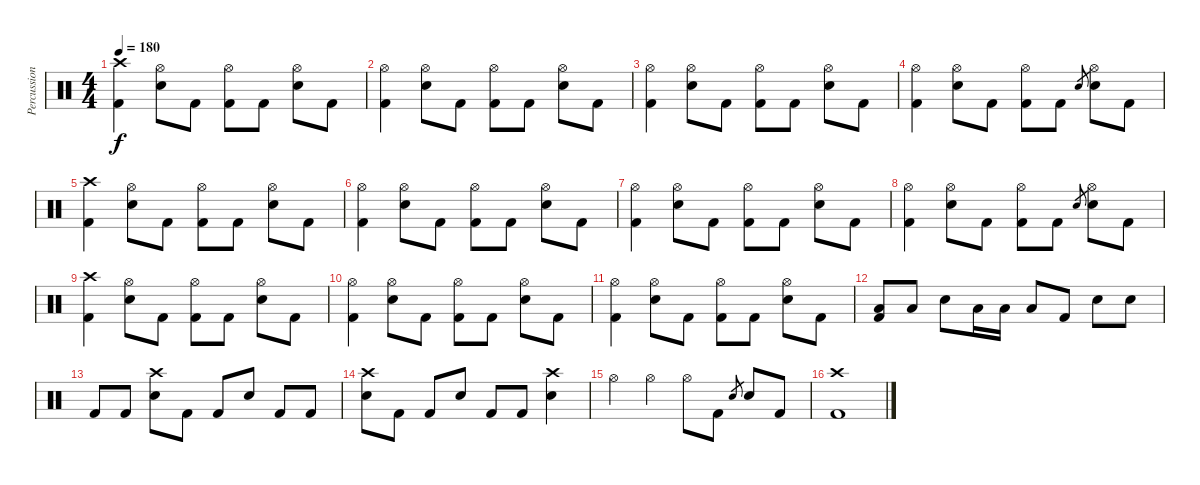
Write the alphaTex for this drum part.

\track ("Percussion" "Percussion") {instrument percussion}
\staff {score}
\articulation defaults
\ts (4 4)
\tempo 180
\clef neutral
\ks c
("Crash high (hit)" "Kick (hit) 2").4{dy f} ("Hi-Hat (open)" "Electric Snare (hit)").8 "Kick (hit) 2".8 ("Hi-Hat (open)" "Kick (hit) 2").8 "Kick (hit) 2".8 ("Hi-Hat (open)" "Electric Snare (hit)").8 "Kick (hit) 2".8 |
("Hi-Hat (open)" "Kick (hit) 2").4 ("Hi-Hat (open)" "Electric Snare (hit)").8 "Kick (hit) 2".8 ("Hi-Hat (open)" "Kick (hit) 2").8 "Kick (hit) 2".8 ("Hi-Hat (open)" "Electric Snare (hit)").8 "Kick (hit) 2".8 |
("Hi-Hat (open)" "Kick (hit) 2").4 ("Hi-Hat (open)" "Electric Snare (hit)").8 "Kick (hit) 2".8 ("Hi-Hat (open)" "Kick (hit) 2").8 "Kick (hit) 2".8 ("Hi-Hat (open)" "Electric Snare (hit)").8 "Kick (hit) 2".8 |
("Hi-Hat (open)" "Kick (hit) 2").4 ("Hi-Hat (open)" "Electric Snare (hit)").8 "Kick (hit) 2".8 ("Hi-Hat (open)" "Kick (hit) 2").8 "Kick (hit) 2".8 "Electric Snare (hit)".8{gr} ("Hi-Hat (open)" "Electric Snare (hit)").8 "Kick (hit) 2".8 |
("Crash high (hit)" "Kick (hit) 2").4 ("Hi-Hat (open)" "Electric Snare (hit)").8 "Kick (hit) 2".8 ("Hi-Hat (open)" "Kick (hit) 2").8 "Kick (hit) 2".8 ("Hi-Hat (open)" "Electric Snare (hit)").8 "Kick (hit) 2".8 |
("Hi-Hat (open)" "Kick (hit) 2").4 ("Hi-Hat (open)" "Electric Snare (hit)").8 "Kick (hit) 2".8 ("Hi-Hat (open)" "Kick (hit) 2").8 "Kick (hit) 2".8 ("Hi-Hat (open)" "Electric Snare (hit)").8 "Kick (hit) 2".8 |
("Hi-Hat (open)" "Kick (hit) 2").4 ("Hi-Hat (open)" "Electric Snare (hit)").8 "Kick (hit) 2".8 ("Hi-Hat (open)" "Kick (hit) 2").8 "Kick (hit) 2".8 ("Hi-Hat (open)" "Electric Snare (hit)").8 "Kick (hit) 2".8 |
("Hi-Hat (open)" "Kick (hit) 2").4 ("Hi-Hat (open)" "Electric Snare (hit)").8 "Kick (hit) 2".8 ("Hi-Hat (open)" "Kick (hit) 2").8 "Kick (hit) 2".8 "Electric Snare (hit)".8{gr} ("Hi-Hat (open)" "Electric Snare (hit)").8 "Kick (hit) 2".8 |
("Crash high (hit)" "Kick (hit) 2").4 ("Hi-Hat (open)" "Electric Snare (hit)").8 "Kick (hit) 2".8 ("Hi-Hat (open)" "Kick (hit) 2").8 "Kick (hit) 2".8 ("Hi-Hat (open)" "Electric Snare (hit)").8 "Kick (hit) 2".8 |
("Hi-Hat (open)" "Kick (hit) 2").4 ("Hi-Hat (open)" "Electric Snare (hit)").8 "Kick (hit) 2".8 ("Hi-Hat (open)" "Kick (hit) 2").8 "Kick (hit) 2".8 ("Hi-Hat (open)" "Electric Snare (hit)").8 "Kick (hit) 2".8 |
("Hi-Hat (open)" "Kick (hit) 2").4 ("Hi-Hat (open)" "Electric Snare (hit)").8 "Kick (hit) 2".8 ("Hi-Hat (open)" "Kick (hit) 2").8 "Kick (hit) 2".8 ("Hi-Hat (open)" "Electric Snare (hit)").8 "Kick (hit) 2".8 |
("Low Tom (hit)" "Kick (hit) 2").8 "Low Tom (hit)".8 "Electric Snare (hit)".8 "Low Tom (hit)".16 "Low Tom (hit)".16 "Low Tom (hit)".8 "Kick (hit) 2".8 "Electric Snare (hit)".8 "Electric Snare (hit)".8 |
"Kick (hit) 2".8 "Kick (hit) 2".8 ("Crash high (hit)" "Electric Snare (hit)").8 "Kick (hit) 2".8 "Kick (hit) 2".8 "Electric Snare (hit)".8 "Kick (hit) 2".8 "Kick (hit) 2".8 |
("Crash high (hit)" "Electric Snare (hit)").8 "Kick (hit) 2".8 "Kick (hit) 2".8 "Electric Snare (hit)".8 "Kick (hit) 2".8 "Kick (hit) 2".8 ("Crash high (hit)" "Electric Snare (hit)").4 |
"Hi-Hat (open)".4 "Hi-Hat (open)".4 "Hi-Hat (open)".8 "Kick (hit) 2".8 "Electric Snare (hit)".8{gr} "Electric Snare (hit)".8 "Kick (hit) 2".8 |
("Crash high (hit)" "Kick (hit) 2").1
